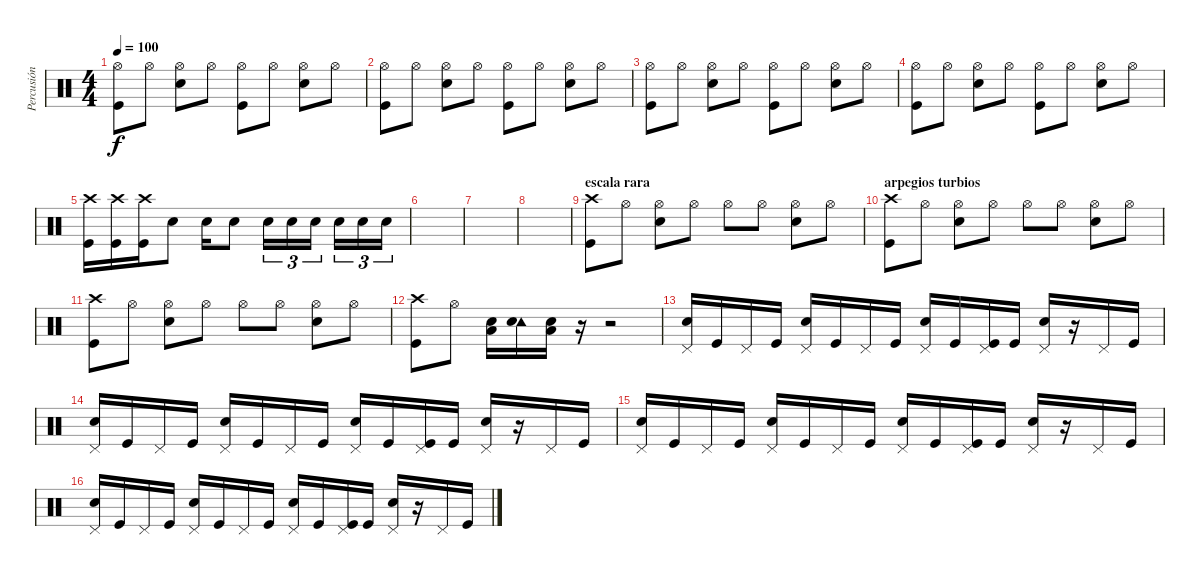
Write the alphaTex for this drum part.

\track ("Percusión" "Percusión") {instrument percussion}
\staff {score}
\articulation defaults
\ts (4 4)
\tempo 100
\clef neutral
\ks c
("Hi-Hat (open)" "Kick (hit)").8{dy f} "Hi-Hat (open)".8 ("Hi-Hat (open)" "Electric Snare (hit)").8 "Hi-Hat (open)".8 ("Hi-Hat (open)" "Kick (hit)").8 "Hi-Hat (open)".8 ("Hi-Hat (open)" "Electric Snare (hit)").8 "Hi-Hat (open)".8 |
("Hi-Hat (open)" "Kick (hit)").8 "Hi-Hat (open)".8 ("Hi-Hat (open)" "Electric Snare (hit)").8 "Hi-Hat (open)".8 ("Hi-Hat (open)" "Kick (hit)").8 "Hi-Hat (open)".8 ("Hi-Hat (open)" "Electric Snare (hit)").8 "Hi-Hat (open)".8 |
("Hi-Hat (open)" "Kick (hit)").8 "Hi-Hat (open)".8 ("Hi-Hat (open)" "Electric Snare (hit)").8 "Hi-Hat (open)".8 ("Hi-Hat (open)" "Kick (hit)").8 "Hi-Hat (open)".8 ("Hi-Hat (open)" "Electric Snare (hit)").8 "Hi-Hat (open)".8 |
("Hi-Hat (open)" "Kick (hit)").8 "Hi-Hat (open)".8 ("Hi-Hat (open)" "Electric Snare (hit)").8 "Hi-Hat (open)".8 ("Hi-Hat (open)" "Kick (hit)").8 "Hi-Hat (open)".8 ("Hi-Hat (open)" "Electric Snare (hit)").8 "Hi-Hat (open)".8 |
("Crash high (hit)" "Kick (hit)").16 ("Crash high (hit)" "Kick (hit)").16 ("Crash high (hit)" "Kick (hit)").16 "Electric Snare (hit)".8 "Electric Snare (hit)".16 "Electric Snare (hit)".8 "Electric Snare (hit)".16{tu (3 2)} "Electric Snare (hit)".16{tu (3 2)} "Electric Snare (hit)".16{tu (3 2)} "Electric Snare (hit)".16{tu (3 2)} "Electric Snare (hit)".16{tu (3 2)} "Electric Snare (hit)".16{tu (3 2)} |
|
|
|
\section ("" "escala rara")
("Crash high (hit)" "Kick (hit)").8 "Hi-Hat (open)".8 ("Hi-Hat (open)" "Electric Snare (hit)").8 "Hi-Hat (open)".8 "Hi-Hat (open)".8 "Hi-Hat (open)".8 ("Hi-Hat (open)" "Electric Snare (hit)").8 "Hi-Hat (open)".8 |
\section ("" "arpegios turbios")
("Crash high (hit)" "Kick (hit)").8 "Hi-Hat (open)".8 ("Hi-Hat (open)" "Electric Snare (hit)").8 "Hi-Hat (open)".8 "Hi-Hat (open)".8 "Hi-Hat (open)".8 ("Hi-Hat (open)" "Electric Snare (hit)").8 "Hi-Hat (open)".8 |
("Crash high (hit)" "Kick (hit)").8 "Hi-Hat (open)".8 ("Hi-Hat (open)" "Electric Snare (hit)").8 "Hi-Hat (open)".8 "Hi-Hat (open)".8 "Hi-Hat (open)".8 ("Hi-Hat (open)" "Electric Snare (hit)").8 "Hi-Hat (open)".8 |
("Crash high (hit)" "Kick (hit)").8 "Hi-Hat (open)".8 ("Low Tom (hit)" "Electric Snare (hit)").16 ("Tambourine (hit)" "Electric Snare (hit)").16 ("Low Tom (hit)" "Electric Snare (hit)").16 r.16 r.2 |
("Pedal Hi-Hat (hit)" "Electric Snare (hit)").16 "Kick (hit)".16 "Pedal Hi-Hat (hit)".16 "Kick (hit)".16 ("Pedal Hi-Hat (hit)" "Electric Snare (hit)").16 "Kick (hit)".16 "Pedal Hi-Hat (hit)".16 "Kick (hit)".16 ("Pedal Hi-Hat (hit)" "Electric Snare (hit)").16 "Kick (hit)".16 ("Pedal Hi-Hat (hit)" "Kick (hit)").16 "Kick (hit)".16 ("Pedal Hi-Hat (hit)" "Electric Snare (hit)").16 r.16 "Pedal Hi-Hat (hit)".16 "Kick (hit)".16 |
("Pedal Hi-Hat (hit)" "Electric Snare (hit)").16 "Kick (hit)".16 "Pedal Hi-Hat (hit)".16 "Kick (hit)".16 ("Pedal Hi-Hat (hit)" "Electric Snare (hit)").16 "Kick (hit)".16 "Pedal Hi-Hat (hit)".16 "Kick (hit)".16 ("Pedal Hi-Hat (hit)" "Electric Snare (hit)").16 "Kick (hit)".16 ("Pedal Hi-Hat (hit)" "Kick (hit)").16 "Kick (hit)".16 ("Pedal Hi-Hat (hit)" "Electric Snare (hit)").16 r.16 "Pedal Hi-Hat (hit)".16 "Kick (hit)".16 |
("Pedal Hi-Hat (hit)" "Electric Snare (hit)").16 "Kick (hit)".16 "Pedal Hi-Hat (hit)".16 "Kick (hit)".16 ("Pedal Hi-Hat (hit)" "Electric Snare (hit)").16 "Kick (hit)".16 "Pedal Hi-Hat (hit)".16 "Kick (hit)".16 ("Pedal Hi-Hat (hit)" "Electric Snare (hit)").16 "Kick (hit)".16 ("Pedal Hi-Hat (hit)" "Kick (hit)").16 "Kick (hit)".16 ("Pedal Hi-Hat (hit)" "Electric Snare (hit)").16 r.16 "Pedal Hi-Hat (hit)".16 "Kick (hit)".16 |
("Pedal Hi-Hat (hit)" "Electric Snare (hit)").16 "Kick (hit)".16 "Pedal Hi-Hat (hit)".16 "Kick (hit)".16 ("Pedal Hi-Hat (hit)" "Electric Snare (hit)").16 "Kick (hit)".16 "Pedal Hi-Hat (hit)".16 "Kick (hit)".16 ("Pedal Hi-Hat (hit)" "Electric Snare (hit)").16 "Kick (hit)".16 ("Pedal Hi-Hat (hit)" "Kick (hit)").16 "Kick (hit)".16 ("Pedal Hi-Hat (hit)" "Electric Snare (hit)").16 r.16 "Pedal Hi-Hat (hit)".16 "Kick (hit)".16
